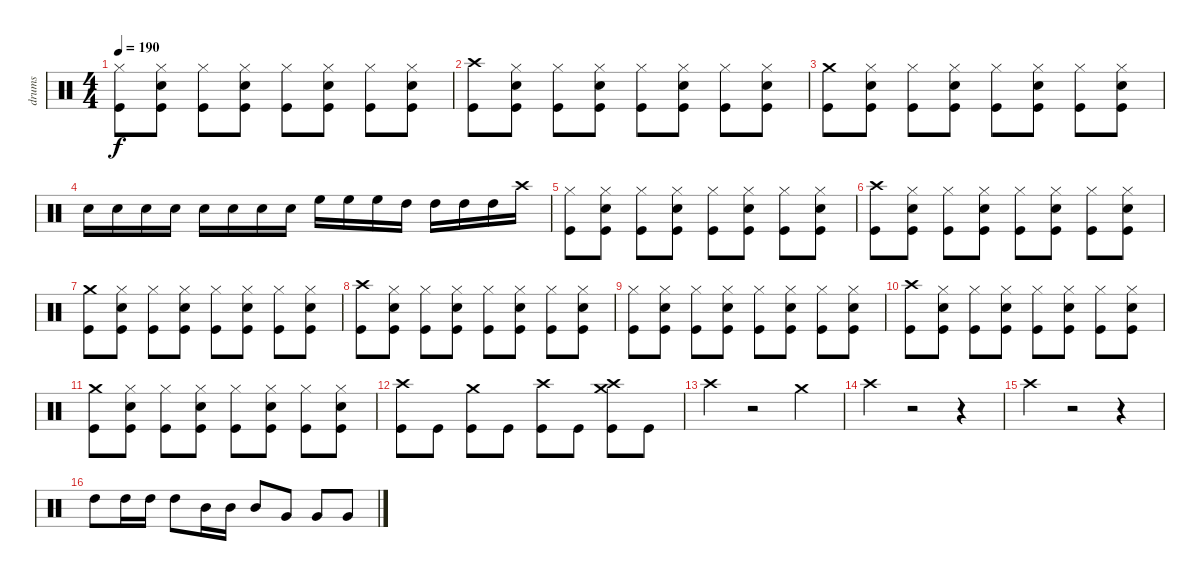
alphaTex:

\track ("drums" "drums") {instrument percussion}
\staff {score}
\articulation defaults
\ts (4 4)
\tempo 190
\clef neutral
\ks c
("Hi-Hat (closed)" "Kick (hit)").8{dy f} ("Hi-Hat (closed)" "Snare (hit) 2" "Kick (hit)").8 ("Hi-Hat (closed)" "Kick (hit)").8 ("Hi-Hat (closed)" "Snare (hit) 2" "Kick (hit)").8 ("Hi-Hat (closed)" "Kick (hit)").8 ("Hi-Hat (closed)" "Snare (hit) 2" "Kick (hit)").8 ("Hi-Hat (closed)" "Kick (hit)").8 ("Hi-Hat (closed)" "Snare (hit) 2" "Kick (hit)").8 |
("Crash high (hit)" "Kick (hit)").8 ("Hi-Hat (closed)" "Snare (hit) 2" "Kick (hit)").8 ("Hi-Hat (closed)" "Kick (hit)").8 ("Hi-Hat (closed)" "Snare (hit) 2" "Kick (hit)").8 ("Hi-Hat (closed)" "Kick (hit)").8 ("Hi-Hat (closed)" "Snare (hit) 2" "Kick (hit)").8 ("Hi-Hat (closed)" "Kick (hit)").8 ("Hi-Hat (closed)" "Snare (hit) 2" "Kick (hit)").8 |
("Crash medium (hit)" "Kick (hit)").8 ("Hi-Hat (closed)" "Snare (hit) 2" "Kick (hit)").8 ("Hi-Hat (closed)" "Kick (hit)").8 ("Hi-Hat (closed)" "Snare (hit) 2" "Kick (hit)").8 ("Hi-Hat (closed)" "Kick (hit)").8 ("Hi-Hat (closed)" "Snare (hit) 2" "Kick (hit)").8 ("Hi-Hat (closed)" "Kick (hit)").8 ("Hi-Hat (closed)" "Snare (hit) 2" "Kick (hit)").8 |
"Snare (hit) 2".16 "Snare (hit) 2".16 "Snare (hit) 2".16 "Snare (hit) 2".16 "Snare (hit) 2".16 "Snare (hit) 2".16 "Snare (hit) 2".16 "Snare (hit) 2".16 "High Floor Tom (hit)".16 "High Floor Tom (hit)".16 "High Floor Tom (hit)".16 "High Tom (hit)".16 "High Tom (hit)".16 "High Tom (hit)".16 "High Tom (hit)".16 "Crash high (hit)".16 |
("Hi-Hat (closed)" "Kick (hit)").8 ("Hi-Hat (closed)" "Snare (hit) 2" "Kick (hit)").8 ("Hi-Hat (closed)" "Kick (hit)").8 ("Hi-Hat (closed)" "Snare (hit) 2" "Kick (hit)").8 ("Hi-Hat (closed)" "Kick (hit)").8 ("Hi-Hat (closed)" "Snare (hit) 2" "Kick (hit)").8 ("Hi-Hat (closed)" "Kick (hit)").8 ("Hi-Hat (closed)" "Snare (hit) 2" "Kick (hit)").8 |
("Crash high (hit)" "Kick (hit)").8 ("Hi-Hat (closed)" "Snare (hit) 2" "Kick (hit)").8 ("Hi-Hat (closed)" "Kick (hit)").8 ("Hi-Hat (closed)" "Snare (hit) 2" "Kick (hit)").8 ("Hi-Hat (closed)" "Kick (hit)").8 ("Hi-Hat (closed)" "Snare (hit) 2" "Kick (hit)").8 ("Hi-Hat (closed)" "Kick (hit)").8 ("Hi-Hat (closed)" "Snare (hit) 2" "Kick (hit)").8 |
("Crash medium (hit)" "Kick (hit)").8 ("Hi-Hat (closed)" "Snare (hit) 2" "Kick (hit)").8 ("Hi-Hat (closed)" "Kick (hit)").8 ("Hi-Hat (closed)" "Snare (hit) 2" "Kick (hit)").8 ("Hi-Hat (closed)" "Kick (hit)").8 ("Hi-Hat (closed)" "Snare (hit) 2" "Kick (hit)").8 ("Hi-Hat (closed)" "Kick (hit)").8 ("Hi-Hat (closed)" "Snare (hit) 2" "Kick (hit)").8 |
("Crash high (hit)" "Kick (hit)").8 ("Hi-Hat (closed)" "Snare (hit) 2" "Kick (hit)").8 ("Hi-Hat (closed)" "Kick (hit)").8 ("Hi-Hat (closed)" "Snare (hit) 2" "Kick (hit)").8 ("Hi-Hat (closed)" "Kick (hit)").8 ("Hi-Hat (closed)" "Snare (hit) 2" "Kick (hit)").8 ("Hi-Hat (closed)" "Kick (hit)").8 ("Hi-Hat (closed)" "Snare (hit) 2" "Kick (hit)").8 |
("Hi-Hat (closed)" "Kick (hit)").8 ("Hi-Hat (closed)" "Snare (hit) 2" "Kick (hit)").8 ("Hi-Hat (closed)" "Kick (hit)").8 ("Hi-Hat (closed)" "Snare (hit) 2" "Kick (hit)").8 ("Hi-Hat (closed)" "Kick (hit)").8 ("Hi-Hat (closed)" "Snare (hit) 2" "Kick (hit)").8 ("Hi-Hat (closed)" "Kick (hit)").8 ("Hi-Hat (closed)" "Snare (hit) 2" "Kick (hit)").8 |
("Crash high (hit)" "Kick (hit)").8 ("Hi-Hat (closed)" "Snare (hit) 2" "Kick (hit)").8 ("Hi-Hat (closed)" "Kick (hit)").8 ("Hi-Hat (closed)" "Snare (hit) 2" "Kick (hit)").8 ("Hi-Hat (closed)" "Kick (hit)").8 ("Hi-Hat (closed)" "Snare (hit) 2" "Kick (hit)").8 ("Hi-Hat (closed)" "Kick (hit)").8 ("Hi-Hat (closed)" "Snare (hit) 2" "Kick (hit)").8 |
("Crash medium (hit)" "Kick (hit)").8 ("Hi-Hat (closed)" "Snare (hit) 2" "Kick (hit)").8 ("Hi-Hat (closed)" "Kick (hit)").8 ("Hi-Hat (closed)" "Snare (hit) 2" "Kick (hit)").8 ("Hi-Hat (closed)" "Kick (hit)").8 ("Hi-Hat (closed)" "Snare (hit) 2" "Kick (hit)").8 ("Hi-Hat (closed)" "Kick (hit)").8 ("Hi-Hat (closed)" "Snare (hit) 2" "Kick (hit)").8 |
("Crash high (hit)" "Kick (hit)").8 "Kick (hit)".8 ("Crash medium (hit)" "Kick (hit)").8 "Kick (hit)".8 ("Crash high (hit)" "Kick (hit)").8 "Kick (hit)".8 ("Crash high (hit)" "Crash medium (hit)" "Kick (hit)").8 "Kick (hit)".8 |
"Crash high (hit)".4 r.2 "Crash medium (hit)".4 |
"Crash high (hit)".4 r.2 r.4 |
"Crash high (hit)".4 r.2 r.4 |
"High Tom (hit)".8 "High Tom (hit)".16 "High Tom (hit)".16 "High Tom (hit)".8 "Mid Tom (hit)".16 "Mid Tom (hit)".16 "Mid Tom (hit)".8 "Very Low Tom (hit)".8 "Very Low Tom (hit)".8 "Very Low Tom (hit)".8
